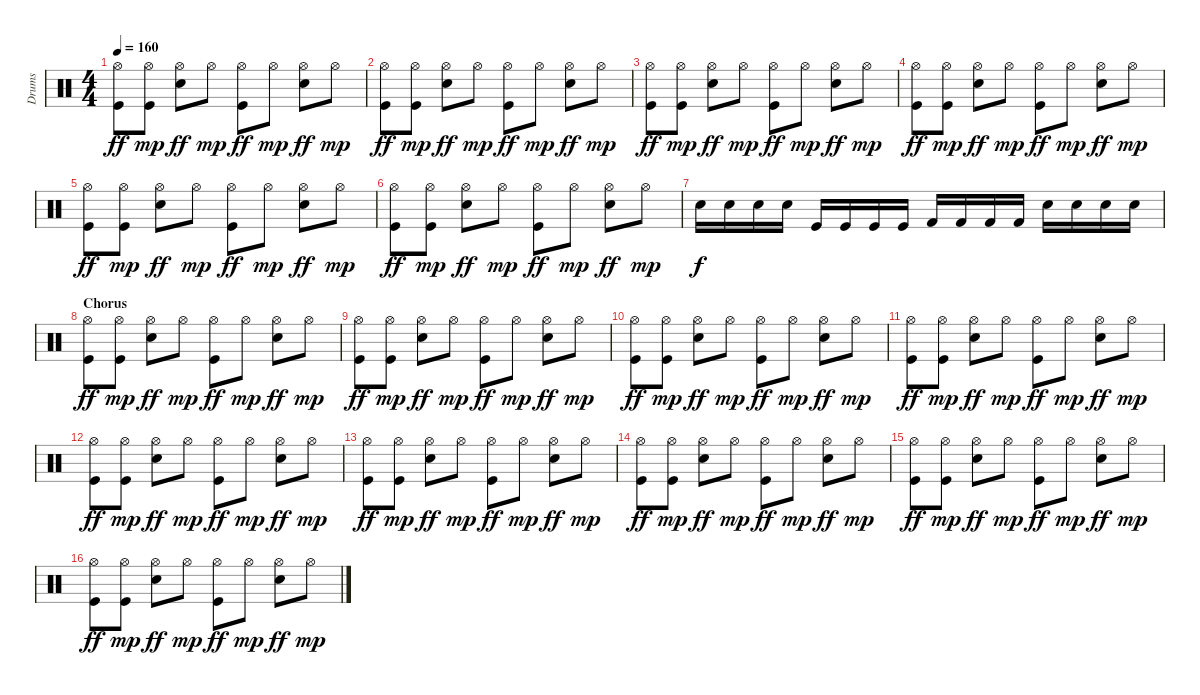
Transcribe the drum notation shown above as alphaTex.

\track ("Drums" "Drums") {instrument percussion}
\staff {score}
\articulation defaults
\ts (4 4)
\tempo 160
\clef neutral
\ks c
("Kick (hit)" "Hi-Hat (open)").8{dy ff} ("Kick (hit)" "Hi-Hat (open)").8{dy mp} ("Electric Snare (hit)" "Hi-Hat (open)").8{dy ff} "Hi-Hat (open)".8{dy mp} ("Kick (hit)" "Hi-Hat (open)").8{dy ff} "Hi-Hat (open)".8{dy mp} ("Electric Snare (hit)" "Hi-Hat (open)").8{dy ff} "Hi-Hat (open)".8{dy mp} |
("Kick (hit)" "Hi-Hat (open)").8{dy ff} ("Kick (hit)" "Hi-Hat (open)").8{dy mp} ("Electric Snare (hit)" "Hi-Hat (open)").8{dy ff} "Hi-Hat (open)".8{dy mp} ("Kick (hit)" "Hi-Hat (open)").8{dy ff} "Hi-Hat (open)".8{dy mp} ("Electric Snare (hit)" "Hi-Hat (open)").8{dy ff} "Hi-Hat (open)".8{dy mp} |
("Kick (hit)" "Hi-Hat (open)").8{dy ff} ("Kick (hit)" "Hi-Hat (open)").8{dy mp} ("Electric Snare (hit)" "Hi-Hat (open)").8{dy ff} "Hi-Hat (open)".8{dy mp} ("Kick (hit)" "Hi-Hat (open)").8{dy ff} "Hi-Hat (open)".8{dy mp} ("Electric Snare (hit)" "Hi-Hat (open)").8{dy ff} "Hi-Hat (open)".8{dy mp} |
("Kick (hit)" "Hi-Hat (open)").8{dy ff} ("Kick (hit)" "Hi-Hat (open)").8{dy mp} ("Electric Snare (hit)" "Hi-Hat (open)").8{dy ff} "Hi-Hat (open)".8{dy mp} ("Kick (hit)" "Hi-Hat (open)").8{dy ff} "Hi-Hat (open)".8{dy mp} ("Electric Snare (hit)" "Hi-Hat (open)").8{dy ff} "Hi-Hat (open)".8{dy mp} |
("Kick (hit)" "Hi-Hat (open)").8{dy ff} ("Kick (hit)" "Hi-Hat (open)").8{dy mp} ("Electric Snare (hit)" "Hi-Hat (open)").8{dy ff} "Hi-Hat (open)".8{dy mp} ("Kick (hit)" "Hi-Hat (open)").8{dy ff} "Hi-Hat (open)".8{dy mp} ("Electric Snare (hit)" "Hi-Hat (open)").8{dy ff} "Hi-Hat (open)".8{dy mp} |
("Kick (hit)" "Hi-Hat (open)").8{dy ff} ("Kick (hit)" "Hi-Hat (open)").8{dy mp} ("Electric Snare (hit)" "Hi-Hat (open)").8{dy ff} "Hi-Hat (open)".8{dy mp} ("Kick (hit)" "Hi-Hat (open)").8{dy ff} "Hi-Hat (open)".8{dy mp} ("Electric Snare (hit)" "Hi-Hat (open)").8{dy ff} "Hi-Hat (open)".8{dy mp} |
"Electric Snare (hit)".16{dy f} "Electric Snare (hit)".16 "Electric Snare (hit)".16 "Electric Snare (hit)".16 "Kick (hit)".16 "Kick (hit)".16 "Kick (hit)".16 "Kick (hit)".16 "Kick (hit) 2".16 "Kick (hit) 2".16 "Kick (hit) 2".16 "Kick (hit) 2".16 "Electric Snare (hit)".16 "Electric Snare (hit)".16 "Electric Snare (hit)".16 "Electric Snare (hit)".16 |
\section ("" "Chorus")
("Kick (hit)" "Hi-Hat (open)").8{dy ff} ("Kick (hit)" "Hi-Hat (open)").8{dy mp} ("Electric Snare (hit)" "Hi-Hat (open)").8{dy ff} "Hi-Hat (open)".8{dy mp} ("Kick (hit)" "Hi-Hat (open)").8{dy ff} "Hi-Hat (open)".8{dy mp} ("Electric Snare (hit)" "Hi-Hat (open)").8{dy ff} "Hi-Hat (open)".8{dy mp} |
("Kick (hit)" "Hi-Hat (open)").8{dy ff} ("Kick (hit)" "Hi-Hat (open)").8{dy mp} ("Electric Snare (hit)" "Hi-Hat (open)").8{dy ff} "Hi-Hat (open)".8{dy mp} ("Kick (hit)" "Hi-Hat (open)").8{dy ff} "Hi-Hat (open)".8{dy mp} ("Electric Snare (hit)" "Hi-Hat (open)").8{dy ff} "Hi-Hat (open)".8{dy mp} |
("Kick (hit)" "Hi-Hat (open)").8{dy ff} ("Kick (hit)" "Hi-Hat (open)").8{dy mp} ("Electric Snare (hit)" "Hi-Hat (open)").8{dy ff} "Hi-Hat (open)".8{dy mp} ("Kick (hit)" "Hi-Hat (open)").8{dy ff} "Hi-Hat (open)".8{dy mp} ("Electric Snare (hit)" "Hi-Hat (open)").8{dy ff} "Hi-Hat (open)".8{dy mp} |
("Kick (hit)" "Hi-Hat (open)").8{dy ff} ("Kick (hit)" "Hi-Hat (open)").8{dy mp} ("Electric Snare (hit)" "Hi-Hat (open)").8{dy ff} "Hi-Hat (open)".8{dy mp} ("Kick (hit)" "Hi-Hat (open)").8{dy ff} "Hi-Hat (open)".8{dy mp} ("Electric Snare (hit)" "Hi-Hat (open)").8{dy ff} "Hi-Hat (open)".8{dy mp} |
("Kick (hit)" "Hi-Hat (open)").8{dy ff} ("Kick (hit)" "Hi-Hat (open)").8{dy mp} ("Electric Snare (hit)" "Hi-Hat (open)").8{dy ff} "Hi-Hat (open)".8{dy mp} ("Kick (hit)" "Hi-Hat (open)").8{dy ff} "Hi-Hat (open)".8{dy mp} ("Electric Snare (hit)" "Hi-Hat (open)").8{dy ff} "Hi-Hat (open)".8{dy mp} |
("Kick (hit)" "Hi-Hat (open)").8{dy ff} ("Kick (hit)" "Hi-Hat (open)").8{dy mp} ("Electric Snare (hit)" "Hi-Hat (open)").8{dy ff} "Hi-Hat (open)".8{dy mp} ("Kick (hit)" "Hi-Hat (open)").8{dy ff} "Hi-Hat (open)".8{dy mp} ("Electric Snare (hit)" "Hi-Hat (open)").8{dy ff} "Hi-Hat (open)".8{dy mp} |
("Kick (hit)" "Hi-Hat (open)").8{dy ff} ("Kick (hit)" "Hi-Hat (open)").8{dy mp} ("Electric Snare (hit)" "Hi-Hat (open)").8{dy ff} "Hi-Hat (open)".8{dy mp} ("Kick (hit)" "Hi-Hat (open)").8{dy ff} "Hi-Hat (open)".8{dy mp} ("Electric Snare (hit)" "Hi-Hat (open)").8{dy ff} "Hi-Hat (open)".8{dy mp} |
("Kick (hit)" "Hi-Hat (open)").8{dy ff} ("Kick (hit)" "Hi-Hat (open)").8{dy mp} ("Electric Snare (hit)" "Hi-Hat (open)").8{dy ff} "Hi-Hat (open)".8{dy mp} ("Kick (hit)" "Hi-Hat (open)").8{dy ff} "Hi-Hat (open)".8{dy mp} ("Electric Snare (hit)" "Hi-Hat (open)").8{dy ff} "Hi-Hat (open)".8{dy mp} |
("Kick (hit)" "Hi-Hat (open)").8{dy ff} ("Kick (hit)" "Hi-Hat (open)").8{dy mp} ("Electric Snare (hit)" "Hi-Hat (open)").8{dy ff} "Hi-Hat (open)".8{dy mp} ("Kick (hit)" "Hi-Hat (open)").8{dy ff} "Hi-Hat (open)".8{dy mp} ("Electric Snare (hit)" "Hi-Hat (open)").8{dy ff} "Hi-Hat (open)".8{dy mp}
